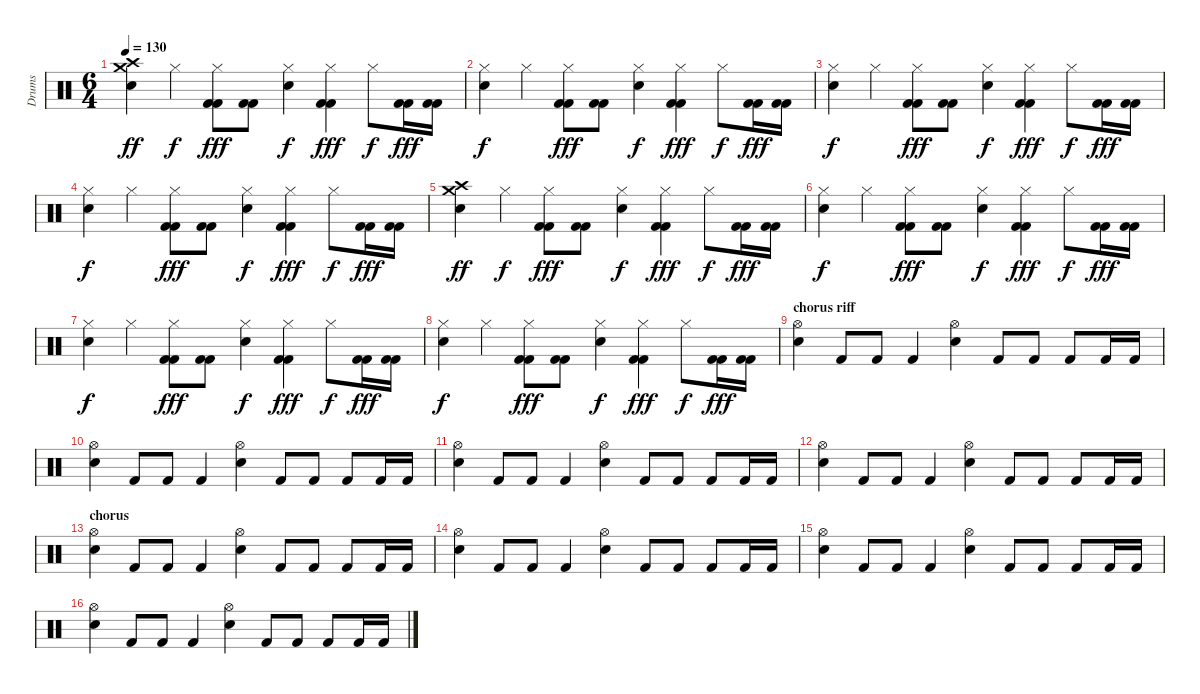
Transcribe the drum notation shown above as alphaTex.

\track ("Drums" "Drums") {instrument percussion}
\staff {score}
\articulation defaults
\ts (6 4)
\tempo 130
\clef neutral
\ks c
("Crash high (hit)" "Crash medium (hit)" "Electric Snare (hit)").4{dy ff} "Hi-Hat (closed)".4{dy f} ("Hi-Hat (closed)" "Kick (hit) 2" "Kick (hit) 2").8{dy fff} ("Kick (hit) 2" "Kick (hit) 2").8 ("Hi-Hat (closed)" "Electric Snare (hit)").4{dy f} ("Hi-Hat (closed)" "Kick (hit) 2" "Kick (hit) 2").4{dy fff} "Hi-Hat (closed)".8{dy f} ("Kick (hit) 2" "Kick (hit) 2").16{dy fff} ("Kick (hit) 2" "Kick (hit) 2").16 |
("Hi-Hat (closed)" "Electric Snare (hit)").4{dy f} "Hi-Hat (closed)".4 ("Hi-Hat (closed)" "Kick (hit) 2" "Kick (hit) 2").8{dy fff} ("Kick (hit) 2" "Kick (hit) 2").8 ("Hi-Hat (closed)" "Electric Snare (hit)").4{dy f} ("Hi-Hat (closed)" "Kick (hit) 2" "Kick (hit) 2").4{dy fff} "Hi-Hat (closed)".8{dy f} ("Kick (hit) 2" "Kick (hit) 2").16{dy fff} ("Kick (hit) 2" "Kick (hit) 2").16 |
("Hi-Hat (closed)" "Electric Snare (hit)").4{dy f} "Hi-Hat (closed)".4 ("Hi-Hat (closed)" "Kick (hit) 2" "Kick (hit) 2").8{dy fff} ("Kick (hit) 2" "Kick (hit) 2").8 ("Hi-Hat (closed)" "Electric Snare (hit)").4{dy f} ("Hi-Hat (closed)" "Kick (hit) 2" "Kick (hit) 2").4{dy fff} "Hi-Hat (closed)".8{dy f} ("Kick (hit) 2" "Kick (hit) 2").16{dy fff} ("Kick (hit) 2" "Kick (hit) 2").16 |
("Hi-Hat (closed)" "Electric Snare (hit)").4{dy f} "Hi-Hat (closed)".4 ("Hi-Hat (closed)" "Kick (hit) 2" "Kick (hit) 2").8{dy fff} ("Kick (hit) 2" "Kick (hit) 2").8 ("Hi-Hat (closed)" "Electric Snare (hit)").4{dy f} ("Hi-Hat (closed)" "Kick (hit) 2" "Kick (hit) 2").4{dy fff} "Hi-Hat (closed)".8{dy f} ("Kick (hit) 2" "Kick (hit) 2").16{dy fff} ("Kick (hit) 2" "Kick (hit) 2").16 |
("Crash high (hit)" "Crash medium (hit)" "Electric Snare (hit)").4{dy ff} "Hi-Hat (closed)".4{dy f} ("Hi-Hat (closed)" "Kick (hit) 2" "Kick (hit) 2").8{dy fff} ("Kick (hit) 2" "Kick (hit) 2").8 ("Hi-Hat (closed)" "Electric Snare (hit)").4{dy f} ("Hi-Hat (closed)" "Kick (hit) 2" "Kick (hit) 2").4{dy fff} "Hi-Hat (closed)".8{dy f} ("Kick (hit) 2" "Kick (hit) 2").16{dy fff} ("Kick (hit) 2" "Kick (hit) 2").16 |
("Hi-Hat (closed)" "Electric Snare (hit)").4{dy f} "Hi-Hat (closed)".4 ("Hi-Hat (closed)" "Kick (hit) 2" "Kick (hit) 2").8{dy fff} ("Kick (hit) 2" "Kick (hit) 2").8 ("Hi-Hat (closed)" "Electric Snare (hit)").4{dy f} ("Hi-Hat (closed)" "Kick (hit) 2" "Kick (hit) 2").4{dy fff} "Hi-Hat (closed)".8{dy f} ("Kick (hit) 2" "Kick (hit) 2").16{dy fff} ("Kick (hit) 2" "Kick (hit) 2").16 |
("Hi-Hat (closed)" "Electric Snare (hit)").4{dy f} "Hi-Hat (closed)".4 ("Hi-Hat (closed)" "Kick (hit) 2" "Kick (hit) 2").8{dy fff} ("Kick (hit) 2" "Kick (hit) 2").8 ("Hi-Hat (closed)" "Electric Snare (hit)").4{dy f} ("Hi-Hat (closed)" "Kick (hit) 2" "Kick (hit) 2").4{dy fff} "Hi-Hat (closed)".8{dy f} ("Kick (hit) 2" "Kick (hit) 2").16{dy fff} ("Kick (hit) 2" "Kick (hit) 2").16 |
("Hi-Hat (closed)" "Electric Snare (hit)").4{dy f} "Hi-Hat (closed)".4 ("Hi-Hat (closed)" "Kick (hit) 2" "Kick (hit) 2").8{dy fff} ("Kick (hit) 2" "Kick (hit) 2").8 ("Hi-Hat (closed)" "Electric Snare (hit)").4{dy f} ("Hi-Hat (closed)" "Kick (hit) 2" "Kick (hit) 2").4{dy fff} "Hi-Hat (closed)".8{dy f} ("Kick (hit) 2" "Kick (hit) 2").16{dy fff} ("Kick (hit) 2" "Kick (hit) 2").16 |
\section ("" "chorus riff")
("Hi-Hat (open)" "Electric Snare (hit)").4 "Kick (hit) 2".8 "Kick (hit) 2".8 "Kick (hit) 2".4 ("Electric Snare (hit)" "Hi-Hat (open)").4 "Kick (hit) 2".8 "Kick (hit) 2".8 "Kick (hit) 2".8 "Kick (hit) 2".16 "Kick (hit) 2".16 |
("Hi-Hat (open)" "Electric Snare (hit)").4 "Kick (hit) 2".8 "Kick (hit) 2".8 "Kick (hit) 2".4 ("Electric Snare (hit)" "Hi-Hat (open)").4 "Kick (hit) 2".8 "Kick (hit) 2".8 "Kick (hit) 2".8 "Kick (hit) 2".16 "Kick (hit) 2".16 |
("Hi-Hat (open)" "Electric Snare (hit)").4 "Kick (hit) 2".8 "Kick (hit) 2".8 "Kick (hit) 2".4 ("Electric Snare (hit)" "Hi-Hat (open)").4 "Kick (hit) 2".8 "Kick (hit) 2".8 "Kick (hit) 2".8 "Kick (hit) 2".16 "Kick (hit) 2".16 |
("Hi-Hat (open)" "Electric Snare (hit)").4 "Kick (hit) 2".8 "Kick (hit) 2".8 "Kick (hit) 2".4 ("Electric Snare (hit)" "Hi-Hat (open)").4 "Kick (hit) 2".8 "Kick (hit) 2".8 "Kick (hit) 2".8 "Kick (hit) 2".16 "Kick (hit) 2".16 |
\section ("" "chorus")
("Hi-Hat (open)" "Electric Snare (hit)").4 "Kick (hit) 2".8 "Kick (hit) 2".8 "Kick (hit) 2".4 ("Electric Snare (hit)" "Hi-Hat (open)").4 "Kick (hit) 2".8 "Kick (hit) 2".8 "Kick (hit) 2".8 "Kick (hit) 2".16 "Kick (hit) 2".16 |
("Hi-Hat (open)" "Electric Snare (hit)").4 "Kick (hit) 2".8 "Kick (hit) 2".8 "Kick (hit) 2".4 ("Electric Snare (hit)" "Hi-Hat (open)").4 "Kick (hit) 2".8 "Kick (hit) 2".8 "Kick (hit) 2".8 "Kick (hit) 2".16 "Kick (hit) 2".16 |
("Hi-Hat (open)" "Electric Snare (hit)").4 "Kick (hit) 2".8 "Kick (hit) 2".8 "Kick (hit) 2".4 ("Electric Snare (hit)" "Hi-Hat (open)").4 "Kick (hit) 2".8 "Kick (hit) 2".8 "Kick (hit) 2".8 "Kick (hit) 2".16 "Kick (hit) 2".16 |
("Hi-Hat (open)" "Electric Snare (hit)").4 "Kick (hit) 2".8 "Kick (hit) 2".8 "Kick (hit) 2".4 ("Electric Snare (hit)" "Hi-Hat (open)").4 "Kick (hit) 2".8 "Kick (hit) 2".8 "Kick (hit) 2".8 "Kick (hit) 2".16 "Kick (hit) 2".16
